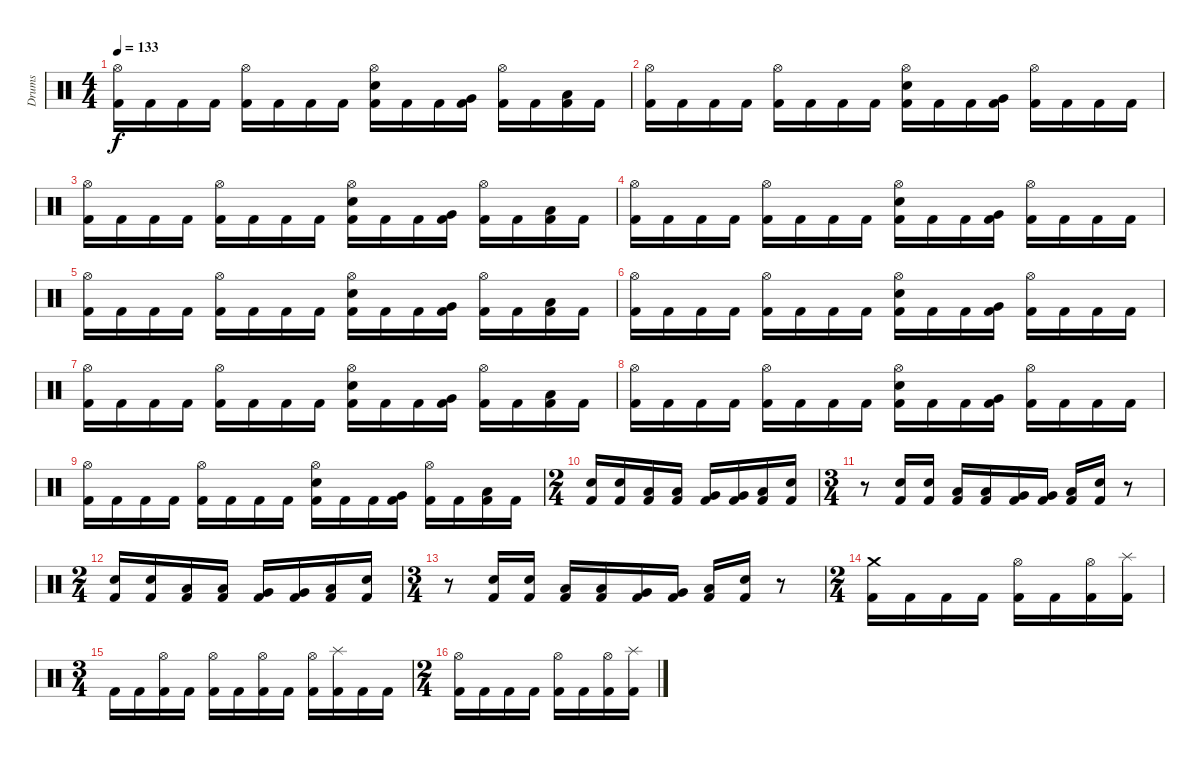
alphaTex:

\track ("Drums" "Drums") {instrument percussion}
\staff {score}
\articulation defaults
\ts (4 4)
\tempo 133
\clef neutral
\ks c
("Hi-Hat (open)" "Kick (hit) 2").16{dy f} "Kick (hit) 2".16 "Kick (hit) 2".16 "Kick (hit) 2".16 ("Hi-Hat (open)" "Kick (hit) 2").16 "Kick (hit) 2".16 "Kick (hit) 2".16 "Kick (hit) 2".16 ("Hi-Hat (open)" "Electric Snare (hit)" "Kick (hit) 2").16 "Kick (hit) 2".16 "Kick (hit) 2".16 ("Very Low Tom (hit)" "Kick (hit) 2").16 ("Hi-Hat (open)" "Kick (hit) 2").16 "Kick (hit) 2".16 ("Low Floor Tom (hit)" "Kick (hit) 2").16 "Kick (hit) 2".16 |
\section ("" "")
("Hi-Hat (open)" "Kick (hit) 2").16 "Kick (hit) 2".16 "Kick (hit) 2".16 "Kick (hit) 2".16 ("Hi-Hat (open)" "Kick (hit) 2").16 "Kick (hit) 2".16 "Kick (hit) 2".16 "Kick (hit) 2".16 ("Hi-Hat (open)" "Electric Snare (hit)" "Kick (hit) 2").16 "Kick (hit) 2".16 "Kick (hit) 2".16 ("Very Low Tom (hit)" "Kick (hit) 2").16 ("Hi-Hat (open)" "Kick (hit) 2").16 "Kick (hit) 2".16 "Kick (hit) 2".16 "Kick (hit) 2".16 |
("Hi-Hat (open)" "Kick (hit) 2").16 "Kick (hit) 2".16 "Kick (hit) 2".16 "Kick (hit) 2".16 ("Hi-Hat (open)" "Kick (hit) 2").16 "Kick (hit) 2".16 "Kick (hit) 2".16 "Kick (hit) 2".16 ("Hi-Hat (open)" "Electric Snare (hit)" "Kick (hit) 2").16 "Kick (hit) 2".16 "Kick (hit) 2".16 ("Very Low Tom (hit)" "Kick (hit) 2").16 ("Hi-Hat (open)" "Kick (hit) 2").16 "Kick (hit) 2".16 ("Low Floor Tom (hit)" "Kick (hit) 2").16 "Kick (hit) 2".16 |
("Hi-Hat (open)" "Kick (hit) 2").16 "Kick (hit) 2".16 "Kick (hit) 2".16 "Kick (hit) 2".16 ("Hi-Hat (open)" "Kick (hit) 2").16 "Kick (hit) 2".16 "Kick (hit) 2".16 "Kick (hit) 2".16 ("Hi-Hat (open)" "Electric Snare (hit)" "Kick (hit) 2").16 "Kick (hit) 2".16 "Kick (hit) 2".16 ("Very Low Tom (hit)" "Kick (hit) 2").16 ("Hi-Hat (open)" "Kick (hit) 2").16 "Kick (hit) 2".16 "Kick (hit) 2".16 "Kick (hit) 2".16 |
("Hi-Hat (open)" "Kick (hit) 2").16 "Kick (hit) 2".16 "Kick (hit) 2".16 "Kick (hit) 2".16 ("Hi-Hat (open)" "Kick (hit) 2").16 "Kick (hit) 2".16 "Kick (hit) 2".16 "Kick (hit) 2".16 ("Hi-Hat (open)" "Electric Snare (hit)" "Kick (hit) 2").16 "Kick (hit) 2".16 "Kick (hit) 2".16 ("Very Low Tom (hit)" "Kick (hit) 2").16 ("Hi-Hat (open)" "Kick (hit) 2").16 "Kick (hit) 2".16 ("Low Floor Tom (hit)" "Kick (hit) 2").16 "Kick (hit) 2".16 |
("Hi-Hat (open)" "Kick (hit) 2").16 "Kick (hit) 2".16 "Kick (hit) 2".16 "Kick (hit) 2".16 ("Hi-Hat (open)" "Kick (hit) 2").16 "Kick (hit) 2".16 "Kick (hit) 2".16 "Kick (hit) 2".16 ("Hi-Hat (open)" "Electric Snare (hit)" "Kick (hit) 2").16 "Kick (hit) 2".16 "Kick (hit) 2".16 ("Very Low Tom (hit)" "Kick (hit) 2").16 ("Hi-Hat (open)" "Kick (hit) 2").16 "Kick (hit) 2".16 "Kick (hit) 2".16 "Kick (hit) 2".16 |
("Hi-Hat (open)" "Kick (hit) 2").16 "Kick (hit) 2".16 "Kick (hit) 2".16 "Kick (hit) 2".16 ("Hi-Hat (open)" "Kick (hit) 2").16 "Kick (hit) 2".16 "Kick (hit) 2".16 "Kick (hit) 2".16 ("Hi-Hat (open)" "Electric Snare (hit)" "Kick (hit) 2").16 "Kick (hit) 2".16 "Kick (hit) 2".16 ("Very Low Tom (hit)" "Kick (hit) 2").16 ("Hi-Hat (open)" "Kick (hit) 2").16 "Kick (hit) 2".16 ("Low Floor Tom (hit)" "Kick (hit) 2").16 "Kick (hit) 2".16 |
("Hi-Hat (open)" "Kick (hit) 2").16 "Kick (hit) 2".16 "Kick (hit) 2".16 "Kick (hit) 2".16 ("Hi-Hat (open)" "Kick (hit) 2").16 "Kick (hit) 2".16 "Kick (hit) 2".16 "Kick (hit) 2".16 ("Hi-Hat (open)" "Electric Snare (hit)" "Kick (hit) 2").16 "Kick (hit) 2".16 "Kick (hit) 2".16 ("Very Low Tom (hit)" "Kick (hit) 2").16 ("Hi-Hat (open)" "Kick (hit) 2").16 "Kick (hit) 2".16 "Kick (hit) 2".16 "Kick (hit) 2".16 |
("Hi-Hat (open)" "Kick (hit) 2").16 "Kick (hit) 2".16 "Kick (hit) 2".16 "Kick (hit) 2".16 ("Hi-Hat (open)" "Kick (hit) 2").16 "Kick (hit) 2".16 "Kick (hit) 2".16 "Kick (hit) 2".16 ("Hi-Hat (open)" "Electric Snare (hit)" "Kick (hit) 2").16 "Kick (hit) 2".16 "Kick (hit) 2".16 ("Very Low Tom (hit)" "Kick (hit) 2").16 ("Hi-Hat (open)" "Kick (hit) 2").16 "Kick (hit) 2".16 ("Low Floor Tom (hit)" "Kick (hit) 2").16 "Kick (hit) 2".16 |
\ts (2 4)
\section ("" "")
("Electric Snare (hit)" "Kick (hit) 2").16 ("Electric Snare (hit)" "Kick (hit) 2").16 ("Low Tom (hit)" "Kick (hit) 2").16 ("Low Tom (hit)" "Kick (hit) 2").16 ("Very Low Tom (hit)" "Kick (hit) 2").16 ("Very Low Tom (hit)" "Kick (hit) 2").16 ("Low Floor Tom (hit)" "Kick (hit) 2").16 ("Electric Snare (hit)" "Kick (hit) 2").16 |
\ts (3 4)
r.8 ("Electric Snare (hit)" "Kick (hit) 2").16 ("Electric Snare (hit)" "Kick (hit) 2").16 ("Low Tom (hit)" "Kick (hit) 2").16 ("Low Tom (hit)" "Kick (hit) 2").16 ("Very Low Tom (hit)" "Kick (hit) 2").16 ("Very Low Tom (hit)" "Kick (hit) 2").16 ("Low Floor Tom (hit)" "Kick (hit) 2").16 ("Electric Snare (hit)" "Kick (hit) 2").16 r.8 |
\ts (2 4)
("Electric Snare (hit)" "Kick (hit) 2").16 ("Electric Snare (hit)" "Kick (hit) 2").16 ("Low Tom (hit)" "Kick (hit) 2").16 ("Low Tom (hit)" "Kick (hit) 2").16 ("Very Low Tom (hit)" "Kick (hit) 2").16 ("Very Low Tom (hit)" "Kick (hit) 2").16 ("Low Floor Tom (hit)" "Kick (hit) 2").16 ("Electric Snare (hit)" "Kick (hit) 2").16 |
\ts (3 4)
r.8 ("Electric Snare (hit)" "Kick (hit) 2").16 ("Electric Snare (hit)" "Kick (hit) 2").16 ("Low Tom (hit)" "Kick (hit) 2").16 ("Low Tom (hit)" "Kick (hit) 2").16 ("Very Low Tom (hit)" "Kick (hit) 2").16 ("Very Low Tom (hit)" "Kick (hit) 2").16 ("Low Floor Tom (hit)" "Kick (hit) 2").16 ("Electric Snare (hit)" "Kick (hit) 2").16 r.8 |
\ts (2 4)
\section ("" "")
("Crash medium (hit)" "Kick (hit) 2").16 "Kick (hit) 2".16 "Kick (hit) 2".16 "Kick (hit) 2".16 ("Hi-Hat (open)" "Kick (hit) 2").16 "Kick (hit) 2".16 ("Hi-Hat (open)" "Kick (hit) 2").16 ("Splash (hit)" "Kick (hit) 2").16 |
\ts (3 4)
"Kick (hit) 2".16 "Kick (hit) 2".16 ("Hi-Hat (open)" "Kick (hit) 2").16 "Kick (hit) 2".16 ("Hi-Hat (open)" "Kick (hit) 2").16 "Kick (hit) 2".16 ("Hi-Hat (open)" "Kick (hit) 2").16 "Kick (hit) 2".16 ("Hi-Hat (open)" "Kick (hit) 2").16 ("Splash (hit)" "Kick (hit) 2").16 "Kick (hit) 2".16 "Kick (hit) 2".16 |
\ts (2 4)
("Hi-Hat (open)" "Kick (hit) 2").16 "Kick (hit) 2".16 "Kick (hit) 2".16 "Kick (hit) 2".16 ("Hi-Hat (open)" "Kick (hit) 2").16 "Kick (hit) 2".16 ("Hi-Hat (open)" "Kick (hit) 2").16 ("Splash (hit)" "Kick (hit) 2").16
